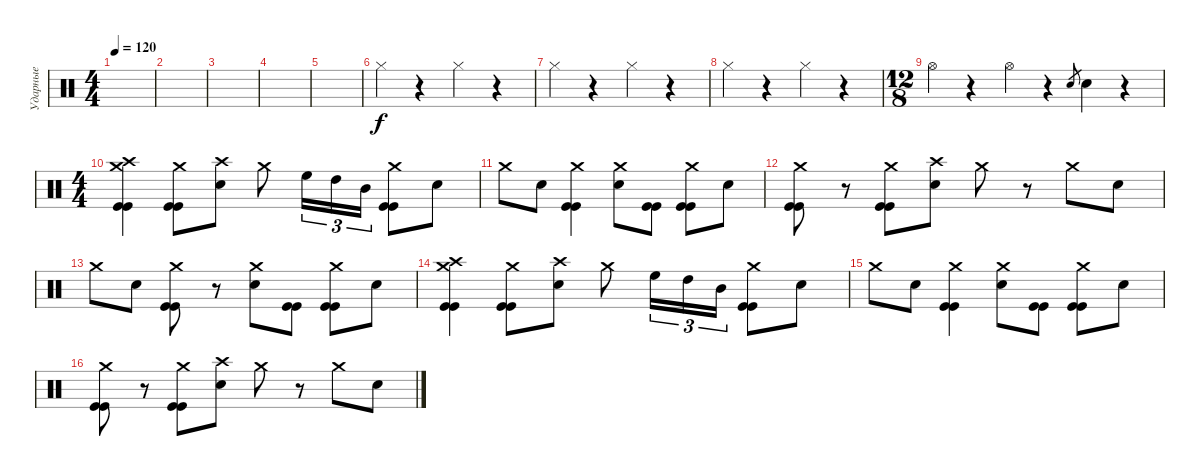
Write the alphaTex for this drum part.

\track ("Ударные" "Ударные") {instrument percussion}
\staff {score}
\articulation defaults
\ts (4 4)
\tempo 120
\clef neutral
\ks c
|
|
|
|
|
"Hi-Hat (closed)".4 r.4 "Hi-Hat (closed)".4 r.4 |
"Hi-Hat (closed)".4 r.4 "Hi-Hat (closed)".4 r.4 |
"Hi-Hat (closed)".4 r.4 "Hi-Hat (closed)".4 r.4 |
\ts (12 8)
"Hi-Hat (open)".4 r.4 "Hi-Hat (open)".4 r.4 "Electric Snare (hit)".8{gr} "Electric Snare (hit)".4 r.4 |
\ts (4 4)
("Crash high (hit)" "Crash medium (hit)" "Kick (hit)" "Kick (hit)").4 ("Crash medium (hit)" "Kick (hit)" "Kick (hit)").8 ("Crash high (hit)" "Electric Snare (hit)").8 "Crash medium (hit)".8 "High Floor Tom (hit)".16{tu (3 2)} "High Tom (hit)".16{tu (3 2)} "Mid Tom (hit)".16{tu (3 2)} ("Crash medium (hit)" "Kick (hit)" "Kick (hit)").8 "Electric Snare (hit)".8 |
"Crash medium (hit)".8 "Electric Snare (hit)".8 ("Crash medium (hit)" "Kick (hit)" "Kick (hit)").4 ("Crash medium (hit)" "Electric Snare (hit)").8 ("Kick (hit)" "Kick (hit)").8 ("Crash medium (hit)" "Kick (hit)" "Kick (hit)").8 "Electric Snare (hit)".8 |
("Crash medium (hit)" "Kick (hit)" "Kick (hit)").8 r.8 ("Crash medium (hit)" "Kick (hit)" "Kick (hit)").8 ("Crash high (hit)" "Electric Snare (hit)").8 "Crash medium (hit)".8 r.8 "Crash medium (hit)".8 "Electric Snare (hit)".8 |
"Crash medium (hit)".8 "Electric Snare (hit)".8 ("Crash medium (hit)" "Kick (hit)" "Kick (hit)").8 r.8 ("Crash medium (hit)" "Electric Snare (hit)").8 ("Kick (hit)" "Kick (hit)").8 ("Crash medium (hit)" "Kick (hit)" "Kick (hit)").8 "Electric Snare (hit)".8 |
("Crash high (hit)" "Crash medium (hit)" "Kick (hit)" "Kick (hit)").4 ("Crash medium (hit)" "Kick (hit)" "Kick (hit)").8 ("Crash high (hit)" "Electric Snare (hit)").8 "Crash medium (hit)".8 "High Floor Tom (hit)".16{tu (3 2)} "High Tom (hit)".16{tu (3 2)} "Mid Tom (hit)".16{tu (3 2)} ("Crash medium (hit)" "Kick (hit)" "Kick (hit)").8 "Electric Snare (hit)".8 |
"Crash medium (hit)".8 "Electric Snare (hit)".8 ("Crash medium (hit)" "Kick (hit)" "Kick (hit)").4 ("Crash medium (hit)" "Electric Snare (hit)").8 ("Kick (hit)" "Kick (hit)").8 ("Crash medium (hit)" "Kick (hit)" "Kick (hit)").8 "Electric Snare (hit)".8 |
("Crash medium (hit)" "Kick (hit)" "Kick (hit)").8 r.8 ("Crash medium (hit)" "Kick (hit)" "Kick (hit)").8 ("Crash high (hit)" "Electric Snare (hit)").8 "Crash medium (hit)".8 r.8 "Crash medium (hit)".8 "Electric Snare (hit)".8
